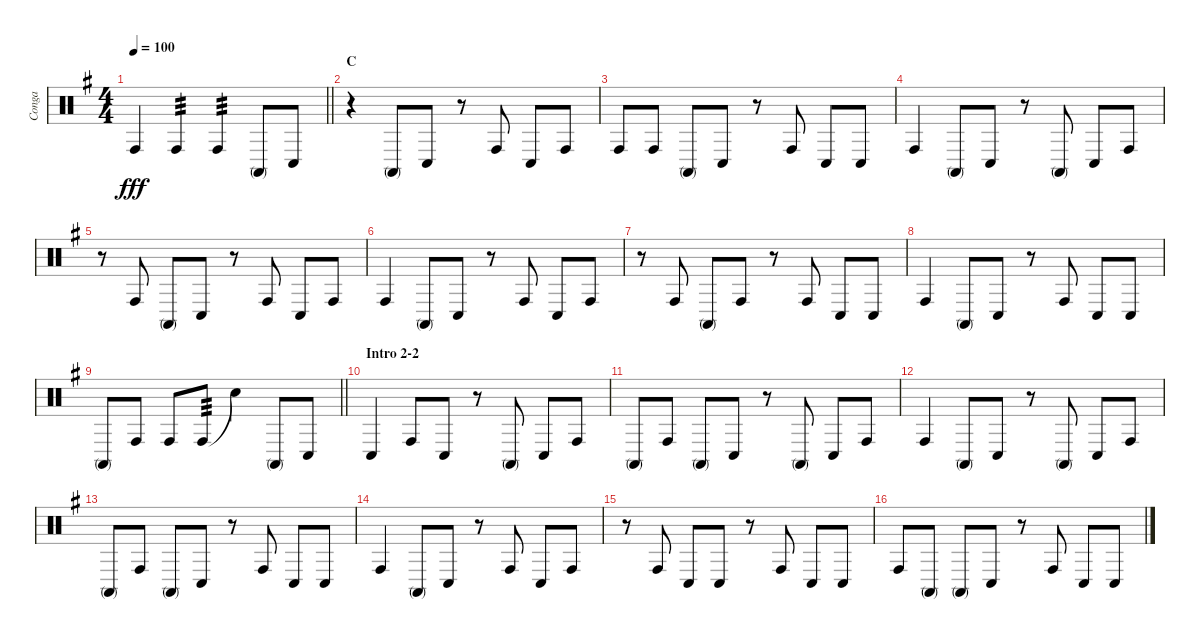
\track ("Conga" "Conga") {instrument percussion}
\staff {score}
\articulation defaults
\ts (4 4)
\tempo 100
\clef neutral
\barLineRight lightlight
\ks g "Conga high (hit)".4{dy fff} "Conga high (hit)".4{tp 3} "Conga high (hit)".4{tp 3} "Conga high (mute)".8 "Conga low (hit)".8
|
\section ("" "C")
r.4 "Conga high (mute)".8 "Conga low (hit)".8 r.8 "Conga high (hit)".8 "Conga low (hit)".8 "Conga high (hit)".8 |
"Conga high (hit)".8 "Conga high (hit)".8 "Conga high (mute)".8 "Conga low (hit)".8 r.8 "Conga high (hit)".8 "Conga low (hit)".8 "Conga low (hit)".8 |
"Conga high (hit)".4 "Conga high (mute)".8 "Conga low (hit)".8 r.8 "Conga high (mute)".8 "Conga low (hit)".8 "Conga high (hit)".8 |
r.8 "Conga high (hit)".8 "Conga high (mute)".8 "Conga low (hit)".8 r.8 "Conga high (hit)".8 "Conga low (hit)".8 "Conga high (hit)".8 |
"Conga high (hit)".4 "Conga high (mute)".8 "Conga low (hit)".8 r.8 "Conga high (hit)".8 "Conga low (hit)".8 "Conga high (hit)".8 |
r.8 "Conga high (hit)".8 "Conga high (mute)".8 "Conga high (hit)".8 r.8 "Conga high (hit)".8 "Conga low (hit)".8 "Conga low (hit)".8 |
"Conga high (hit)".4 "Conga high (mute)".8 "Conga low (hit)".8 r.8 "Conga high (hit)".8 "Conga low (hit)".8 "Conga low (hit)".8 |
\barLineRight lightlight "Conga high (mute)".8 "Conga high (hit)".8 "Conga high (hit)".8 "Conga high (hit)".8{tp 3} "Snare (hit)"{t}.4 "Conga high (mute)".8 "Conga low (hit)".8
|
\section ("" "Intro 2-2")
"Conga low (hit)".4 "Conga high (hit)".8 "Conga low (hit)".8 r.8 "Conga high (mute)".8 "Conga low (hit)".8 "Conga high (hit)".8 |
"Conga high (mute)".8 "Conga high (hit)".8 "Conga high (mute)".8 "Conga low (hit)".8 r.8 "Conga high (mute)".8 "Conga low (hit)".8 "Conga high (hit)".8 |
"Conga high (hit)".4 "Conga high (mute)".8 "Conga low (hit)".8 r.8 "Conga high (mute)".8 "Conga low (hit)".8 "Conga high (hit)".8 |
"Conga high (mute)".8 "Conga high (hit)".8 "Conga high (mute)".8 "Conga low (hit)".8 r.8 "Conga high (hit)".8 "Conga low (hit)".8 "Conga low (hit)".8 |
"Conga high (hit)".4 "Conga high (mute)".8 "Conga low (hit)".8 r.8 "Conga high (hit)".8 "Conga low (hit)".8 "Conga high (hit)".8 |
r.8 "Conga high (hit)".8 "Conga low (hit)".8 "Conga low (hit)".8 r.8 "Conga high (hit)".8 "Conga low (hit)".8 "Conga low (hit)".8 |
"Conga high (hit)".8 "Conga high (mute)".8 "Conga high (mute)".8 "Conga low (hit)".8 r.8 "Conga high (hit)".8 "Conga low (hit)".8 "Conga low (hit)".8
